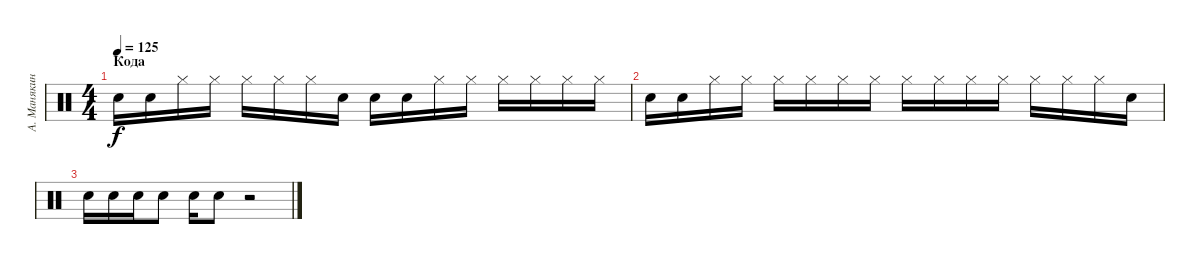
\track ("А. Манякин" "А. Манякин") {instrument percussion}
\staff {score}
\articulation defaults
\ts (4 4)
\section ("" "Кода")
\tempo 125
\clef neutral
\ks c "Electric Snare (hit)".16{dy f} "Electric Snare (hit)".16 "Hi-Hat (closed)".16 "Hi-Hat (closed)".16 "Hi-Hat (closed)".16 "Hi-Hat (closed)".16 "Hi-Hat (closed)".16 "Electric Snare (hit)".16 "Electric Snare (hit)".16 "Electric Snare (hit)".16 "Hi-Hat (closed)".16 "Hi-Hat (closed)".16 "Hi-Hat (closed)".16 "Hi-Hat (closed)".16 "Hi-Hat (closed)".16 "Hi-Hat (closed)".16
|
"Electric Snare (hit)".16 "Electric Snare (hit)".16 "Hi-Hat (closed)".16 "Hi-Hat (closed)".16 "Hi-Hat (closed)".16 "Hi-Hat (closed)".16 "Hi-Hat (closed)".16 "Hi-Hat (closed)".16 "Hi-Hat (closed)".16 "Hi-Hat (closed)".16 "Hi-Hat (closed)".16 "Hi-Hat (closed)".16 "Hi-Hat (closed)".16 "Hi-Hat (closed)".16 "Hi-Hat (closed)".16 "Electric Snare (hit)".16 |
"Electric Snare (hit)".16 "Electric Snare (hit)".16 "Electric Snare (hit)".16 "Electric Snare (hit)".8 "Electric Snare (hit)".16 "Electric Snare (hit)".8 r.2
